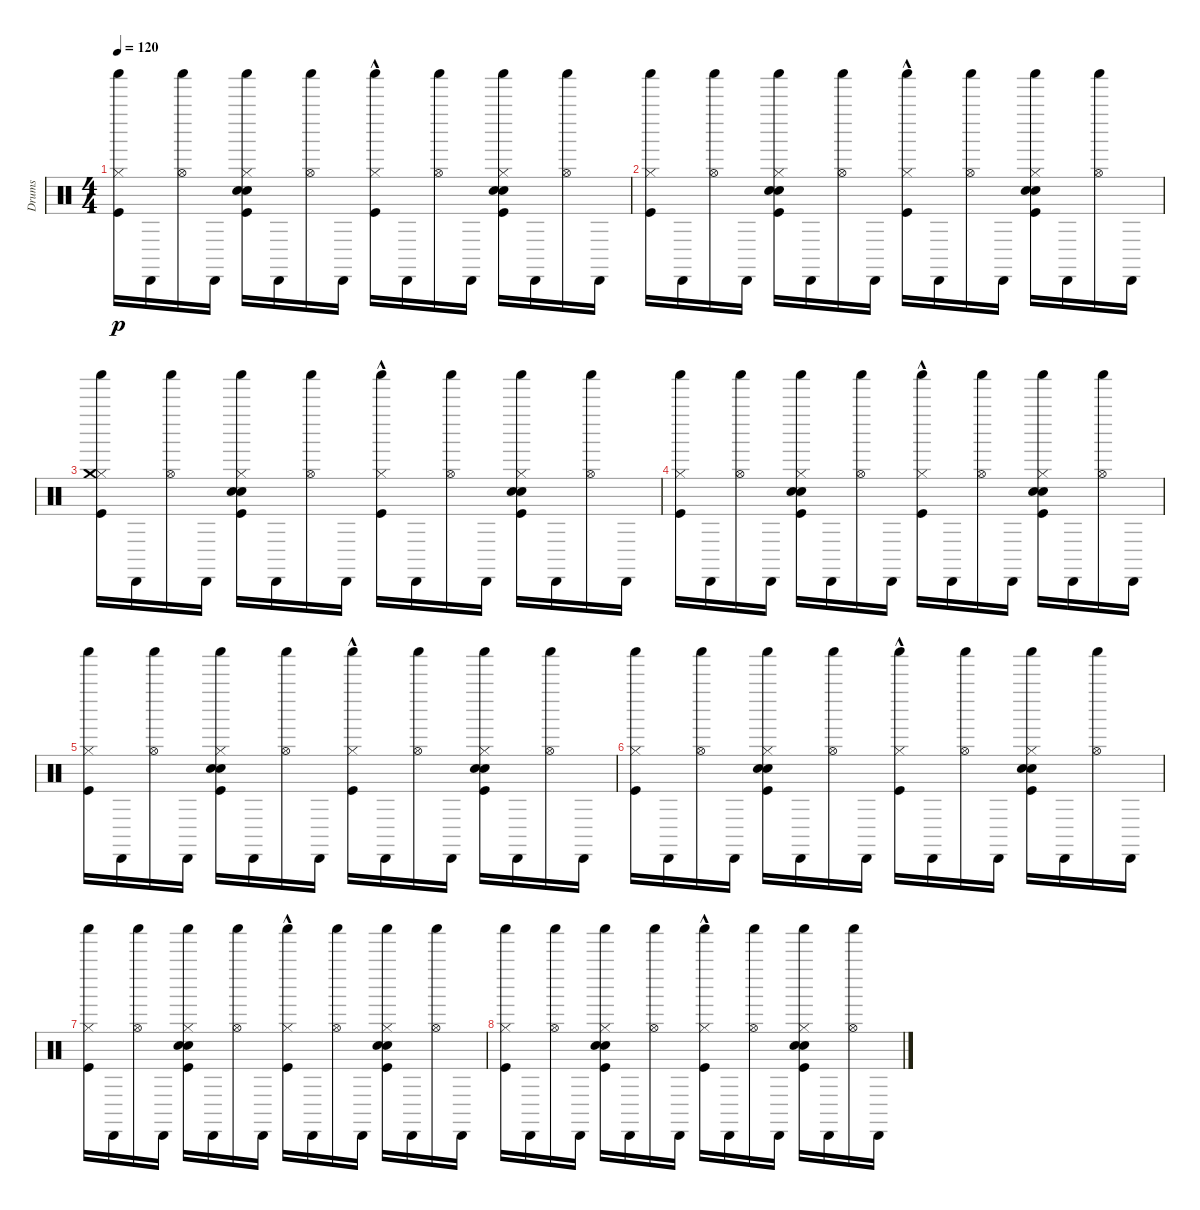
\track ("Drums" "Drums") {instrument percussion}
\staff {score}
\articulation defaults
\ts (4 4)
\tempo 120
\clef neutral
\ks c
("Kick (hit)" "Hi-Hat (closed)" "Shaker (hit)").16{dy p} "Cabasa (hit)".16 ("Hi-Hat (open)" "Shaker (hit)").16 "Cabasa (hit)".16 ("Kick (hit)" "Snare (hit) 2" "Electric Snare (hit)" "Hi-Hat (closed)" "Shaker (hit)").16 "Cabasa (hit)".16 ("Hi-Hat (open)" "Shaker (hit)").16 "Cabasa (hit)".16 ("Kick (hit)" "Hi-Hat (closed)" "Shaker (hit)"{hac}).16 "Cabasa (hit)".16 ("Hi-Hat (open)" "Shaker (hit)").16 "Cabasa (hit)".16 ("Kick (hit)" "Snare (hit) 2" "Electric Snare (hit)" "Hi-Hat (closed)" "Shaker (hit)").16 "Cabasa (hit)".16 ("Hi-Hat (open)" "Shaker (hit)").16 "Cabasa (hit)".16 |
("Kick (hit)" "Hi-Hat (closed)" "Shaker (hit)").16 "Cabasa (hit)".16 ("Hi-Hat (open)" "Shaker (hit)").16 "Cabasa (hit)".16 ("Kick (hit)" "Snare (hit) 2" "Electric Snare (hit)" "Hi-Hat (closed)" "Shaker (hit)").16 "Cabasa (hit)".16 ("Hi-Hat (open)" "Shaker (hit)").16 "Cabasa (hit)".16 ("Kick (hit)" "Hi-Hat (closed)" "Shaker (hit)"{hac}).16 "Cabasa (hit)".16 ("Hi-Hat (open)" "Shaker (hit)").16 "Cabasa (hit)".16 ("Kick (hit)" "Snare (hit) 2" "Electric Snare (hit)" "Hi-Hat (closed)" "Shaker (hit)").16 "Cabasa (hit)".16 ("Hi-Hat (open)" "Shaker (hit)").16 "Cabasa (hit)".16 |
("Kick (hit)" "Hi-Hat (closed)" "Crash medium (hit)" "Shaker (hit)").16 "Cabasa (hit)".16 ("Hi-Hat (open)" "Shaker (hit)").16 "Cabasa (hit)".16 ("Kick (hit)" "Snare (hit) 2" "Electric Snare (hit)" "Hi-Hat (closed)" "Shaker (hit)").16 "Cabasa (hit)".16 ("Hi-Hat (open)" "Shaker (hit)").16 "Cabasa (hit)".16 ("Kick (hit)" "Hi-Hat (closed)" "Shaker (hit)"{hac}).16 "Cabasa (hit)".16 ("Hi-Hat (open)" "Shaker (hit)").16 "Cabasa (hit)".16 ("Kick (hit)" "Snare (hit) 2" "Electric Snare (hit)" "Hi-Hat (closed)" "Shaker (hit)").16 "Cabasa (hit)".16 ("Hi-Hat (open)" "Shaker (hit)").16 "Cabasa (hit)".16 |
("Kick (hit)" "Hi-Hat (closed)" "Shaker (hit)").16 "Cabasa (hit)".16 ("Hi-Hat (open)" "Shaker (hit)").16 "Cabasa (hit)".16 ("Kick (hit)" "Snare (hit) 2" "Electric Snare (hit)" "Hi-Hat (closed)" "Shaker (hit)").16 "Cabasa (hit)".16 ("Hi-Hat (open)" "Shaker (hit)").16 "Cabasa (hit)".16 ("Kick (hit)" "Hi-Hat (closed)" "Shaker (hit)"{hac}).16 "Cabasa (hit)".16 ("Hi-Hat (open)" "Shaker (hit)").16 "Cabasa (hit)".16 ("Kick (hit)" "Snare (hit) 2" "Electric Snare (hit)" "Hi-Hat (closed)" "Shaker (hit)").16 "Cabasa (hit)".16 ("Hi-Hat (open)" "Shaker (hit)").16 "Cabasa (hit)".16 |
("Kick (hit)" "Hi-Hat (closed)" "Shaker (hit)").16 "Cabasa (hit)".16 ("Hi-Hat (open)" "Shaker (hit)").16 "Cabasa (hit)".16 ("Kick (hit)" "Snare (hit) 2" "Electric Snare (hit)" "Hi-Hat (closed)" "Shaker (hit)").16 "Cabasa (hit)".16 ("Hi-Hat (open)" "Shaker (hit)").16 "Cabasa (hit)".16 ("Kick (hit)" "Hi-Hat (closed)" "Shaker (hit)"{hac}).16 "Cabasa (hit)".16 ("Hi-Hat (open)" "Shaker (hit)").16 "Cabasa (hit)".16 ("Kick (hit)" "Snare (hit) 2" "Electric Snare (hit)" "Hi-Hat (closed)" "Shaker (hit)").16 "Cabasa (hit)".16 ("Hi-Hat (open)" "Shaker (hit)").16 "Cabasa (hit)".16 |
("Kick (hit)" "Hi-Hat (closed)" "Shaker (hit)").16 "Cabasa (hit)".16 ("Hi-Hat (open)" "Shaker (hit)").16 "Cabasa (hit)".16 ("Kick (hit)" "Snare (hit) 2" "Electric Snare (hit)" "Hi-Hat (closed)" "Shaker (hit)").16 "Cabasa (hit)".16 ("Hi-Hat (open)" "Shaker (hit)").16 "Cabasa (hit)".16 ("Kick (hit)" "Hi-Hat (closed)" "Shaker (hit)"{hac}).16 "Cabasa (hit)".16 ("Hi-Hat (open)" "Shaker (hit)").16 "Cabasa (hit)".16 ("Kick (hit)" "Snare (hit) 2" "Electric Snare (hit)" "Hi-Hat (closed)" "Shaker (hit)").16 "Cabasa (hit)".16 ("Hi-Hat (open)" "Shaker (hit)").16 "Cabasa (hit)".16 |
("Kick (hit)" "Hi-Hat (closed)" "Shaker (hit)").16 "Cabasa (hit)".16 ("Hi-Hat (open)" "Shaker (hit)").16 "Cabasa (hit)".16 ("Kick (hit)" "Snare (hit) 2" "Electric Snare (hit)" "Hi-Hat (closed)" "Shaker (hit)").16 "Cabasa (hit)".16 ("Hi-Hat (open)" "Shaker (hit)").16 "Cabasa (hit)".16 ("Kick (hit)" "Hi-Hat (closed)" "Shaker (hit)"{hac}).16 "Cabasa (hit)".16 ("Hi-Hat (open)" "Shaker (hit)").16 "Cabasa (hit)".16 ("Kick (hit)" "Snare (hit) 2" "Electric Snare (hit)" "Hi-Hat (closed)" "Shaker (hit)").16 "Cabasa (hit)".16 ("Hi-Hat (open)" "Shaker (hit)").16 "Cabasa (hit)".16 |
("Kick (hit)" "Hi-Hat (closed)" "Shaker (hit)").16 "Cabasa (hit)".16 ("Hi-Hat (open)" "Shaker (hit)").16 "Cabasa (hit)".16 ("Kick (hit)" "Snare (hit) 2" "Electric Snare (hit)" "Hi-Hat (closed)" "Shaker (hit)").16 "Cabasa (hit)".16 ("Hi-Hat (open)" "Shaker (hit)").16 "Cabasa (hit)".16 ("Kick (hit)" "Hi-Hat (closed)" "Shaker (hit)"{hac}).16 "Cabasa (hit)".16 ("Hi-Hat (open)" "Shaker (hit)").16 "Cabasa (hit)".16 ("Kick (hit)" "Snare (hit) 2" "Electric Snare (hit)" "Hi-Hat (closed)" "Shaker (hit)").16 "Cabasa (hit)".16 ("Hi-Hat (open)" "Shaker (hit)").16 "Cabasa (hit)".16
